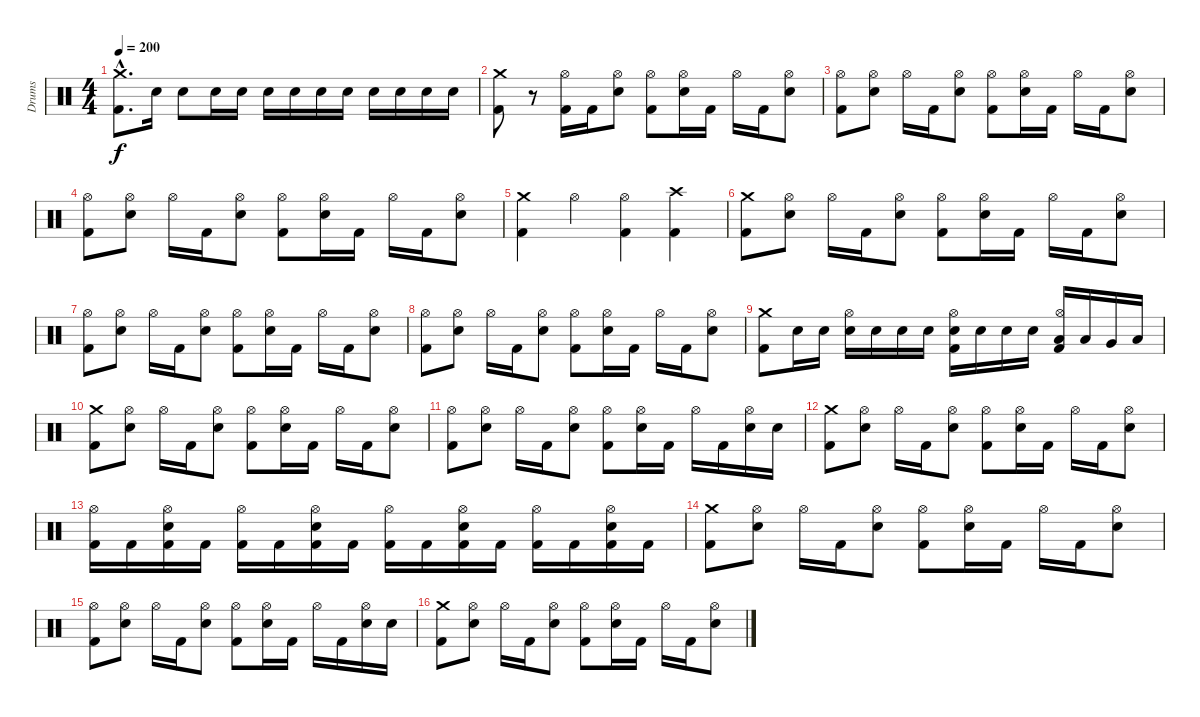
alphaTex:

\track ("Drums" "Drums") {instrument percussion}
\staff {score}
\articulation defaults
\ts (4 4)
\tempo 200
\clef neutral
\ks c
("Crash medium (hit)"{hac} "Kick (hit) 2"{hac}).8{d dy f} "Snare (hit) 2".16 "Snare (hit) 2".8 "Snare (hit) 2".16 "Snare (hit) 2".16 "Snare (hit) 2".16 "Snare (hit) 2".16 "Snare (hit) 2".16 "Snare (hit) 2".16 "Snare (hit) 2".16 "Snare (hit) 2".16 "Snare (hit) 2".16 "Snare (hit) 2".16 |
("Crash medium (hit)" "Kick (hit) 2").8 r.8 ("Hi-Hat (open)" "Kick (hit) 2").16 "Kick (hit) 2".16 ("Hi-Hat (open)" "Snare (hit) 2").8 ("Hi-Hat (open)" "Kick (hit) 2").8 ("Hi-Hat (open)" "Snare (hit) 2").16 "Kick (hit) 2".16 "Hi-Hat (open)".16 "Kick (hit) 2".16 ("Hi-Hat (open)" "Snare (hit) 2").8 |
("Hi-Hat (open)" "Kick (hit) 2").8 ("Hi-Hat (open)" "Snare (hit) 2").8 "Hi-Hat (open)".16 "Kick (hit) 2".16 ("Hi-Hat (open)" "Snare (hit) 2").8 ("Hi-Hat (open)" "Kick (hit) 2").8 ("Hi-Hat (open)" "Snare (hit) 2").16 "Kick (hit) 2".16 "Hi-Hat (open)".16 "Kick (hit) 2".16 ("Hi-Hat (open)" "Snare (hit) 2").8 |
("Hi-Hat (open)" "Kick (hit) 2").8 ("Hi-Hat (open)" "Snare (hit) 2").8 "Hi-Hat (open)".16 "Kick (hit) 2".16 ("Hi-Hat (open)" "Snare (hit) 2").8 ("Hi-Hat (open)" "Kick (hit) 2").8 ("Hi-Hat (open)" "Snare (hit) 2").16 "Kick (hit) 2".16 "Hi-Hat (open)".16 "Kick (hit) 2".16 ("Hi-Hat (open)" "Snare (hit) 2").8 |
("Crash medium (hit)" "Kick (hit) 2").4 "Hi-Hat (open)".4 ("Hi-Hat (open)" "Kick (hit) 2").4 ("Crash high (hit)" "Kick (hit) 2").4 |
("Crash medium (hit)" "Kick (hit) 2").8 ("Hi-Hat (open)" "Snare (hit) 2").8 "Hi-Hat (open)".16 "Kick (hit) 2".16 ("Hi-Hat (open)" "Snare (hit) 2").8 ("Hi-Hat (open)" "Kick (hit) 2").8 ("Hi-Hat (open)" "Snare (hit) 2").16 "Kick (hit) 2".16 "Hi-Hat (open)".16 "Kick (hit) 2".16 ("Hi-Hat (open)" "Snare (hit) 2").8 |
("Hi-Hat (open)" "Kick (hit) 2").8 ("Hi-Hat (open)" "Snare (hit) 2").8 "Hi-Hat (open)".16 "Kick (hit) 2".16 ("Hi-Hat (open)" "Snare (hit) 2").8 ("Hi-Hat (open)" "Kick (hit) 2").8 ("Hi-Hat (open)" "Snare (hit) 2").16 "Kick (hit) 2".16 "Hi-Hat (open)".16 "Kick (hit) 2".16 ("Hi-Hat (open)" "Snare (hit) 2").8 |
("Hi-Hat (open)" "Kick (hit) 2").8 ("Hi-Hat (open)" "Snare (hit) 2").8 "Hi-Hat (open)".16 "Kick (hit) 2".16 ("Hi-Hat (open)" "Snare (hit) 2").8 ("Hi-Hat (open)" "Kick (hit) 2").8 ("Hi-Hat (open)" "Snare (hit) 2").16 "Kick (hit) 2".16 "Hi-Hat (open)".16 "Kick (hit) 2".16 ("Hi-Hat (open)" "Snare (hit) 2").8 |
("Crash medium (hit)" "Kick (hit) 2").8 "Snare (hit) 2".16 "Snare (hit) 2".16 ("Hi-Hat (open)" "Snare (hit) 2").16 "Snare (hit) 2".16 "Snare (hit) 2".16 "Snare (hit) 2".16 ("Hi-Hat (open)" "Snare (hit) 2" "Kick (hit) 2").16 "Snare (hit) 2".16 "Snare (hit) 2".16 "Snare (hit) 2".16 ("Hi-Hat (open)" "Low Tom (hit)" "Kick (hit) 2").16 "Low Tom (hit)".16 "Very Low Tom (hit)".16 "Low Floor Tom (hit)".16 |
("Crash medium (hit)" "Kick (hit) 2").8 ("Hi-Hat (open)" "Snare (hit) 2").8 "Hi-Hat (open)".16 "Kick (hit) 2".16 ("Hi-Hat (open)" "Snare (hit) 2").8 ("Hi-Hat (open)" "Kick (hit) 2").8 ("Hi-Hat (open)" "Snare (hit) 2").16 "Kick (hit) 2".16 "Hi-Hat (open)".16 "Kick (hit) 2".16 ("Hi-Hat (open)" "Snare (hit) 2").8 |
("Hi-Hat (open)" "Kick (hit) 2").8 ("Hi-Hat (open)" "Snare (hit) 2").8 "Hi-Hat (open)".16 "Kick (hit) 2".16 ("Hi-Hat (open)" "Snare (hit) 2").8 ("Hi-Hat (open)" "Kick (hit) 2").8 ("Hi-Hat (open)" "Snare (hit) 2").16 "Kick (hit) 2".16 "Hi-Hat (open)".16 "Kick (hit) 2".16 ("Hi-Hat (open)" "Snare (hit) 2").16 "Snare (hit) 2".16 |
("Crash medium (hit)" "Kick (hit) 2").8 ("Hi-Hat (open)" "Snare (hit) 2").8 "Hi-Hat (open)".16 "Kick (hit) 2".16 ("Hi-Hat (open)" "Snare (hit) 2").8 ("Hi-Hat (open)" "Kick (hit) 2").8 ("Hi-Hat (open)" "Snare (hit) 2").16 "Kick (hit) 2".16 "Hi-Hat (open)".16 "Kick (hit) 2".16 ("Hi-Hat (open)" "Snare (hit) 2").8 |
("Hi-Hat (open)" "Kick (hit) 2").16 "Kick (hit) 2".16 ("Hi-Hat (open)" "Snare (hit) 2" "Kick (hit) 2").16 "Kick (hit) 2".16 ("Hi-Hat (open)" "Kick (hit) 2").16 "Kick (hit) 2".16 ("Hi-Hat (open)" "Snare (hit) 2" "Kick (hit) 2").16 "Kick (hit) 2".16 ("Hi-Hat (open)" "Kick (hit) 2").16 "Kick (hit) 2".16 ("Hi-Hat (open)" "Snare (hit) 2" "Kick (hit) 2").16 "Kick (hit) 2".16 ("Hi-Hat (open)" "Kick (hit) 2").16 "Kick (hit) 2".16 ("Hi-Hat (open)" "Snare (hit) 2" "Kick (hit) 2").16 "Kick (hit) 2".16 |
("Crash medium (hit)" "Kick (hit) 2").8 ("Hi-Hat (open)" "Snare (hit) 2").8 "Hi-Hat (open)".16 "Kick (hit) 2".16 ("Hi-Hat (open)" "Snare (hit) 2").8 ("Hi-Hat (open)" "Kick (hit) 2").8 ("Hi-Hat (open)" "Snare (hit) 2").16 "Kick (hit) 2".16 "Hi-Hat (open)".16 "Kick (hit) 2".16 ("Hi-Hat (open)" "Snare (hit) 2").8 |
("Hi-Hat (open)" "Kick (hit) 2").8 ("Hi-Hat (open)" "Snare (hit) 2").8 "Hi-Hat (open)".16 "Kick (hit) 2".16 ("Hi-Hat (open)" "Snare (hit) 2").8 ("Hi-Hat (open)" "Kick (hit) 2").8 ("Hi-Hat (open)" "Snare (hit) 2").16 "Kick (hit) 2".16 "Hi-Hat (open)".16 "Kick (hit) 2".16 ("Hi-Hat (open)" "Snare (hit) 2").16 "Snare (hit) 2".16 |
("Crash medium (hit)" "Kick (hit) 2").8 ("Hi-Hat (open)" "Snare (hit) 2").8 "Hi-Hat (open)".16 "Kick (hit) 2".16 ("Hi-Hat (open)" "Snare (hit) 2").8 ("Hi-Hat (open)" "Kick (hit) 2").8 ("Hi-Hat (open)" "Snare (hit) 2").16 "Kick (hit) 2".16 "Hi-Hat (open)".16 "Kick (hit) 2".16 ("Hi-Hat (open)" "Snare (hit) 2").8
